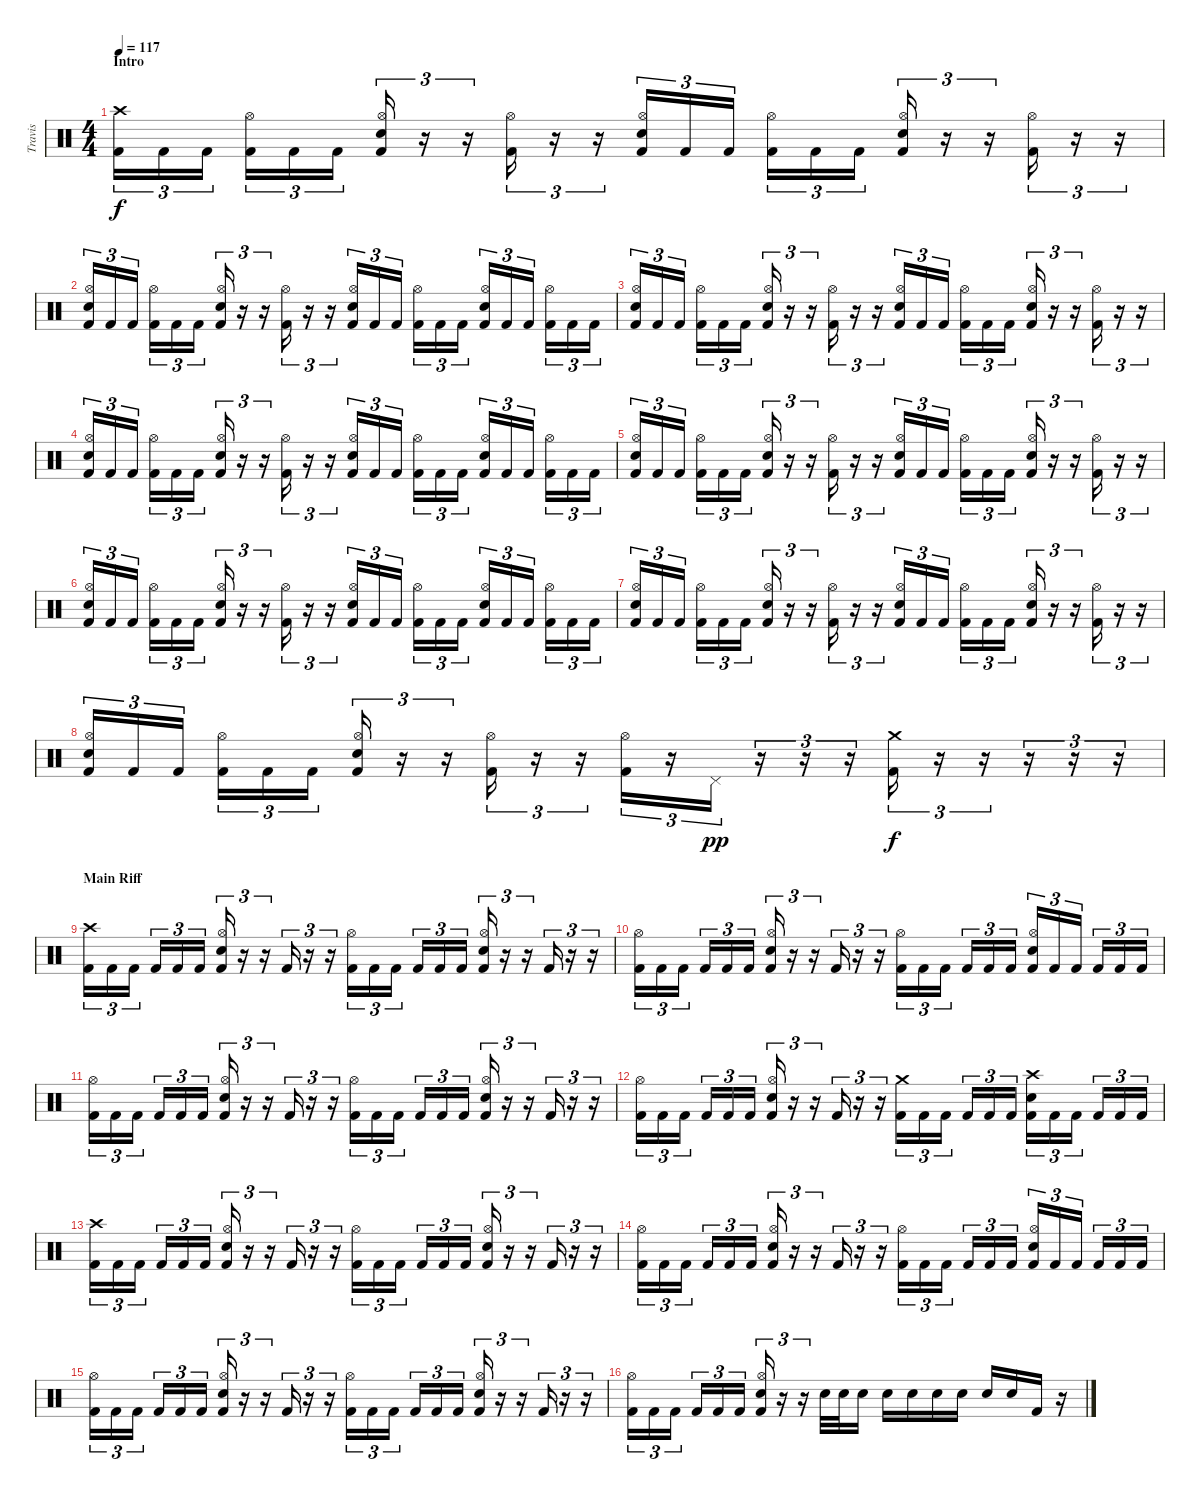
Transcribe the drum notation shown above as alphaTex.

\track ("Travis" "Travis") {instrument percussion}
\staff {score}
\articulation defaults
\ts (4 4)
\section ("" "Intro")
\tempo 117
\clef neutral
\ks c
("Crash high (hit)" "Kick (hit) 2").16{tu (3 2) dy f} "Kick (hit) 2".16{tu (3 2)} "Kick (hit) 2".16{tu (3 2)} ("Hi-Hat (open)" "Kick (hit) 2").16{tu (3 2)} "Kick (hit) 2".16{tu (3 2)} "Kick (hit) 2".16{tu (3 2)} ("Hi-Hat (open)" "Electric Snare (hit)" "Kick (hit) 2").16{tu (3 2)} r.16{tu (3 2)} r.16{tu (3 2)} ("Hi-Hat (open)" "Kick (hit) 2").16{tu (3 2)} r.16{tu (3 2)} r.16{tu (3 2)} ("Hi-Hat (open)" "Electric Snare (hit)" "Kick (hit) 2").16{tu (3 2)} "Kick (hit) 2".16{tu (3 2)} "Kick (hit) 2".16{tu (3 2)} ("Hi-Hat (open)" "Kick (hit) 2").16{tu (3 2)} "Kick (hit) 2".16{tu (3 2)} "Kick (hit) 2".16{tu (3 2)} ("Hi-Hat (open)" "Electric Snare (hit)" "Kick (hit) 2").16{tu (3 2)} r.16{tu (3 2)} r.16{tu (3 2)} ("Hi-Hat (open)" "Kick (hit) 2").16{tu (3 2)} r.16{tu (3 2)} r.16{tu (3 2)} |
("Hi-Hat (open)" "Electric Snare (hit)" "Kick (hit) 2").16{tu (3 2)} "Kick (hit) 2".16{tu (3 2)} "Kick (hit) 2".16{tu (3 2)} ("Hi-Hat (open)" "Kick (hit) 2").16{tu (3 2)} "Kick (hit) 2".16{tu (3 2)} "Kick (hit) 2".16{tu (3 2)} ("Hi-Hat (open)" "Electric Snare (hit)" "Kick (hit) 2").16{tu (3 2)} r.16{tu (3 2)} r.16{tu (3 2)} ("Hi-Hat (open)" "Kick (hit) 2").16{tu (3 2)} r.16{tu (3 2)} r.16{tu (3 2)} ("Hi-Hat (open)" "Electric Snare (hit)" "Kick (hit) 2").16{tu (3 2)} "Kick (hit) 2".16{tu (3 2)} "Kick (hit) 2".16{tu (3 2)} ("Hi-Hat (open)" "Kick (hit) 2").16{tu (3 2)} "Kick (hit) 2".16{tu (3 2)} "Kick (hit) 2".16{tu (3 2)} ("Hi-Hat (open)" "Electric Snare (hit)" "Kick (hit) 2").16{tu (3 2)} "Kick (hit) 2".16{tu (3 2)} "Kick (hit) 2".16{tu (3 2)} ("Hi-Hat (open)" "Kick (hit) 2").16{tu (3 2)} "Kick (hit) 2".16{tu (3 2)} "Kick (hit) 2".16{tu (3 2)} |
("Hi-Hat (open)" "Electric Snare (hit)" "Kick (hit) 2").16{tu (3 2)} "Kick (hit) 2".16{tu (3 2)} "Kick (hit) 2".16{tu (3 2)} ("Hi-Hat (open)" "Kick (hit) 2").16{tu (3 2)} "Kick (hit) 2".16{tu (3 2)} "Kick (hit) 2".16{tu (3 2)} ("Hi-Hat (open)" "Electric Snare (hit)" "Kick (hit) 2").16{tu (3 2)} r.16{tu (3 2)} r.16{tu (3 2)} ("Hi-Hat (open)" "Kick (hit) 2").16{tu (3 2)} r.16{tu (3 2)} r.16{tu (3 2)} ("Hi-Hat (open)" "Electric Snare (hit)" "Kick (hit) 2").16{tu (3 2)} "Kick (hit) 2".16{tu (3 2)} "Kick (hit) 2".16{tu (3 2)} ("Hi-Hat (open)" "Kick (hit) 2").16{tu (3 2)} "Kick (hit) 2".16{tu (3 2)} "Kick (hit) 2".16{tu (3 2)} ("Hi-Hat (open)" "Electric Snare (hit)" "Kick (hit) 2").16{tu (3 2)} r.16{tu (3 2)} r.16{tu (3 2)} ("Hi-Hat (open)" "Kick (hit) 2").16{tu (3 2)} r.16{tu (3 2)} r.16{tu (3 2)} |
("Hi-Hat (open)" "Electric Snare (hit)" "Kick (hit) 2").16{tu (3 2)} "Kick (hit) 2".16{tu (3 2)} "Kick (hit) 2".16{tu (3 2)} ("Hi-Hat (open)" "Kick (hit) 2").16{tu (3 2)} "Kick (hit) 2".16{tu (3 2)} "Kick (hit) 2".16{tu (3 2)} ("Hi-Hat (open)" "Electric Snare (hit)" "Kick (hit) 2").16{tu (3 2)} r.16{tu (3 2)} r.16{tu (3 2)} ("Hi-Hat (open)" "Kick (hit) 2").16{tu (3 2)} r.16{tu (3 2)} r.16{tu (3 2)} ("Hi-Hat (open)" "Electric Snare (hit)" "Kick (hit) 2").16{tu (3 2)} "Kick (hit) 2".16{tu (3 2)} "Kick (hit) 2".16{tu (3 2)} ("Hi-Hat (open)" "Kick (hit) 2").16{tu (3 2)} "Kick (hit) 2".16{tu (3 2)} "Kick (hit) 2".16{tu (3 2)} ("Hi-Hat (open)" "Electric Snare (hit)" "Kick (hit) 2").16{tu (3 2)} "Kick (hit) 2".16{tu (3 2)} "Kick (hit) 2".16{tu (3 2)} ("Hi-Hat (open)" "Kick (hit) 2").16{tu (3 2)} "Kick (hit) 2".16{tu (3 2)} "Kick (hit) 2".16{tu (3 2)} |
("Hi-Hat (open)" "Electric Snare (hit)" "Kick (hit) 2").16{tu (3 2)} "Kick (hit) 2".16{tu (3 2)} "Kick (hit) 2".16{tu (3 2)} ("Hi-Hat (open)" "Kick (hit) 2").16{tu (3 2)} "Kick (hit) 2".16{tu (3 2)} "Kick (hit) 2".16{tu (3 2)} ("Hi-Hat (open)" "Electric Snare (hit)" "Kick (hit) 2").16{tu (3 2)} r.16{tu (3 2)} r.16{tu (3 2)} ("Hi-Hat (open)" "Kick (hit) 2").16{tu (3 2)} r.16{tu (3 2)} r.16{tu (3 2)} ("Hi-Hat (open)" "Electric Snare (hit)" "Kick (hit) 2").16{tu (3 2)} "Kick (hit) 2".16{tu (3 2)} "Kick (hit) 2".16{tu (3 2)} ("Hi-Hat (open)" "Kick (hit) 2").16{tu (3 2)} "Kick (hit) 2".16{tu (3 2)} "Kick (hit) 2".16{tu (3 2)} ("Hi-Hat (open)" "Electric Snare (hit)" "Kick (hit) 2").16{tu (3 2)} r.16{tu (3 2)} r.16{tu (3 2)} ("Hi-Hat (open)" "Kick (hit) 2").16{tu (3 2)} r.16{tu (3 2)} r.16{tu (3 2)} |
("Hi-Hat (open)" "Electric Snare (hit)" "Kick (hit) 2").16{tu (3 2)} "Kick (hit) 2".16{tu (3 2)} "Kick (hit) 2".16{tu (3 2)} ("Hi-Hat (open)" "Kick (hit) 2").16{tu (3 2)} "Kick (hit) 2".16{tu (3 2)} "Kick (hit) 2".16{tu (3 2)} ("Hi-Hat (open)" "Electric Snare (hit)" "Kick (hit) 2").16{tu (3 2)} r.16{tu (3 2)} r.16{tu (3 2)} ("Hi-Hat (open)" "Kick (hit) 2").16{tu (3 2)} r.16{tu (3 2)} r.16{tu (3 2)} ("Hi-Hat (open)" "Electric Snare (hit)" "Kick (hit) 2").16{tu (3 2)} "Kick (hit) 2".16{tu (3 2)} "Kick (hit) 2".16{tu (3 2)} ("Hi-Hat (open)" "Kick (hit) 2").16{tu (3 2)} "Kick (hit) 2".16{tu (3 2)} "Kick (hit) 2".16{tu (3 2)} ("Hi-Hat (open)" "Electric Snare (hit)" "Kick (hit) 2").16{tu (3 2)} "Kick (hit) 2".16{tu (3 2)} "Kick (hit) 2".16{tu (3 2)} ("Hi-Hat (open)" "Kick (hit) 2").16{tu (3 2)} "Kick (hit) 2".16{tu (3 2)} "Kick (hit) 2".16{tu (3 2)} |
("Hi-Hat (open)" "Electric Snare (hit)" "Kick (hit) 2").16{tu (3 2)} "Kick (hit) 2".16{tu (3 2)} "Kick (hit) 2".16{tu (3 2)} ("Hi-Hat (open)" "Kick (hit) 2").16{tu (3 2)} "Kick (hit) 2".16{tu (3 2)} "Kick (hit) 2".16{tu (3 2)} ("Hi-Hat (open)" "Electric Snare (hit)" "Kick (hit) 2").16{tu (3 2)} r.16{tu (3 2)} r.16{tu (3 2)} ("Hi-Hat (open)" "Kick (hit) 2").16{tu (3 2)} r.16{tu (3 2)} r.16{tu (3 2)} ("Hi-Hat (open)" "Electric Snare (hit)" "Kick (hit) 2").16{tu (3 2)} "Kick (hit) 2".16{tu (3 2)} "Kick (hit) 2".16{tu (3 2)} ("Hi-Hat (open)" "Kick (hit) 2").16{tu (3 2)} "Kick (hit) 2".16{tu (3 2)} "Kick (hit) 2".16{tu (3 2)} ("Hi-Hat (open)" "Electric Snare (hit)" "Kick (hit) 2").16{tu (3 2)} r.16{tu (3 2)} r.16{tu (3 2)} ("Hi-Hat (open)" "Kick (hit) 2").16{tu (3 2)} r.16{tu (3 2)} r.16{tu (3 2)} |
("Hi-Hat (open)" "Electric Snare (hit)" "Kick (hit) 2").16{tu (3 2)} "Kick (hit) 2".16{tu (3 2)} "Kick (hit) 2".16{tu (3 2)} ("Hi-Hat (open)" "Kick (hit) 2").16{tu (3 2)} "Kick (hit) 2".16{tu (3 2)} "Kick (hit) 2".16{tu (3 2)} ("Hi-Hat (open)" "Electric Snare (hit)" "Kick (hit) 2").16{tu (3 2)} r.16{tu (3 2)} r.16{tu (3 2)} ("Hi-Hat (open)" "Kick (hit) 2").16{tu (3 2)} r.16{tu (3 2)} r.16{tu (3 2)} ("Hi-Hat (open)" "Kick (hit) 2").16{tu (3 2)} r.16{tu (3 2)} "Pedal Hi-Hat (hit)".16{tu (3 2) dy pp} r.16{tu (3 2)} r.16{tu (3 2)} r.16{tu (3 2)} ("Crash medium (hit)" "Kick (hit) 2").16{tu (3 2) dy f} r.16{tu (3 2)} r.16{tu (3 2)} r.16{tu (3 2)} r.16{tu (3 2)} r.16{tu (3 2)} |
\section ("" "Main Riff")
("Crash high (hit)" "Kick (hit) 2").16{tu (3 2)} "Kick (hit) 2".16{tu (3 2)} "Kick (hit) 2".16{tu (3 2)} "Kick (hit) 2".16{tu (3 2)} "Kick (hit) 2".16{tu (3 2)} "Kick (hit) 2".16{tu (3 2)} ("Hi-Hat (open)" "Electric Snare (hit)" "Kick (hit) 2").16{tu (3 2)} r.16{tu (3 2)} r.16{tu (3 2)} "Kick (hit) 2".16{tu (3 2)} r.16{tu (3 2)} r.16{tu (3 2)} ("Hi-Hat (open)" "Kick (hit) 2").16{tu (3 2)} "Kick (hit) 2".16{tu (3 2)} "Kick (hit) 2".16{tu (3 2)} "Kick (hit) 2".16{tu (3 2)} "Kick (hit) 2".16{tu (3 2)} "Kick (hit) 2".16{tu (3 2)} ("Hi-Hat (open)" "Electric Snare (hit)" "Kick (hit) 2").16{tu (3 2)} r.16{tu (3 2)} r.16{tu (3 2)} "Kick (hit) 2".16{tu (3 2)} r.16{tu (3 2)} r.16{tu (3 2)} |
("Hi-Hat (open)" "Kick (hit) 2").16{tu (3 2)} "Kick (hit) 2".16{tu (3 2)} "Kick (hit) 2".16{tu (3 2)} "Kick (hit) 2".16{tu (3 2)} "Kick (hit) 2".16{tu (3 2)} "Kick (hit) 2".16{tu (3 2)} ("Hi-Hat (open)" "Electric Snare (hit)" "Kick (hit) 2").16{tu (3 2)} r.16{tu (3 2)} r.16{tu (3 2)} "Kick (hit) 2".16{tu (3 2)} r.16{tu (3 2)} r.16{tu (3 2)} ("Hi-Hat (open)" "Kick (hit) 2").16{tu (3 2)} "Kick (hit) 2".16{tu (3 2)} "Kick (hit) 2".16{tu (3 2)} "Kick (hit) 2".16{tu (3 2)} "Kick (hit) 2".16{tu (3 2)} "Kick (hit) 2".16{tu (3 2)} ("Hi-Hat (open)" "Electric Snare (hit)" "Kick (hit) 2").16{tu (3 2)} "Kick (hit) 2".16{tu (3 2)} "Kick (hit) 2".16{tu (3 2)} "Kick (hit) 2".16{tu (3 2)} "Kick (hit) 2".16{tu (3 2)} "Kick (hit) 2".16{tu (3 2)} |
("Hi-Hat (open)" "Kick (hit) 2").16{tu (3 2)} "Kick (hit) 2".16{tu (3 2)} "Kick (hit) 2".16{tu (3 2)} "Kick (hit) 2".16{tu (3 2)} "Kick (hit) 2".16{tu (3 2)} "Kick (hit) 2".16{tu (3 2)} ("Hi-Hat (open)" "Electric Snare (hit)" "Kick (hit) 2").16{tu (3 2)} r.16{tu (3 2)} r.16{tu (3 2)} "Kick (hit) 2".16{tu (3 2)} r.16{tu (3 2)} r.16{tu (3 2)} ("Hi-Hat (open)" "Kick (hit) 2").16{tu (3 2)} "Kick (hit) 2".16{tu (3 2)} "Kick (hit) 2".16{tu (3 2)} "Kick (hit) 2".16{tu (3 2)} "Kick (hit) 2".16{tu (3 2)} "Kick (hit) 2".16{tu (3 2)} ("Hi-Hat (open)" "Electric Snare (hit)" "Kick (hit) 2").16{tu (3 2)} r.16{tu (3 2)} r.16{tu (3 2)} "Kick (hit) 2".16{tu (3 2)} r.16{tu (3 2)} r.16{tu (3 2)} |
("Hi-Hat (open)" "Kick (hit) 2").16{tu (3 2)} "Kick (hit) 2".16{tu (3 2)} "Kick (hit) 2".16{tu (3 2)} "Kick (hit) 2".16{tu (3 2)} "Kick (hit) 2".16{tu (3 2)} "Kick (hit) 2".16{tu (3 2)} ("Hi-Hat (open)" "Electric Snare (hit)" "Kick (hit) 2").16{tu (3 2)} r.16{tu (3 2)} r.16{tu (3 2)} "Kick (hit) 2".16{tu (3 2)} r.16{tu (3 2)} r.16{tu (3 2)} ("Crash medium (hit)" "Kick (hit) 2").16{tu (3 2)} "Kick (hit) 2".16{tu (3 2)} "Kick (hit) 2".16{tu (3 2)} "Kick (hit) 2".16{tu (3 2)} "Kick (hit) 2".16{tu (3 2)} "Kick (hit) 2".16{tu (3 2)} ("Crash high (hit)" "Electric Snare (hit)" "Kick (hit) 2").16{tu (3 2)} "Kick (hit) 2".16{tu (3 2)} "Kick (hit) 2".16{tu (3 2)} "Kick (hit) 2".16{tu (3 2)} "Kick (hit) 2".16{tu (3 2)} "Kick (hit) 2".16{tu (3 2)} |
("Crash high (hit)" "Kick (hit) 2").16{tu (3 2)} "Kick (hit) 2".16{tu (3 2)} "Kick (hit) 2".16{tu (3 2)} "Kick (hit) 2".16{tu (3 2)} "Kick (hit) 2".16{tu (3 2)} "Kick (hit) 2".16{tu (3 2)} ("Hi-Hat (open)" "Electric Snare (hit)" "Kick (hit) 2").16{tu (3 2)} r.16{tu (3 2)} r.16{tu (3 2)} "Kick (hit) 2".16{tu (3 2)} r.16{tu (3 2)} r.16{tu (3 2)} ("Hi-Hat (open)" "Kick (hit) 2").16{tu (3 2)} "Kick (hit) 2".16{tu (3 2)} "Kick (hit) 2".16{tu (3 2)} "Kick (hit) 2".16{tu (3 2)} "Kick (hit) 2".16{tu (3 2)} "Kick (hit) 2".16{tu (3 2)} ("Hi-Hat (open)" "Electric Snare (hit)" "Kick (hit) 2").16{tu (3 2)} r.16{tu (3 2)} r.16{tu (3 2)} "Kick (hit) 2".16{tu (3 2)} r.16{tu (3 2)} r.16{tu (3 2)} |
("Hi-Hat (open)" "Kick (hit) 2").16{tu (3 2)} "Kick (hit) 2".16{tu (3 2)} "Kick (hit) 2".16{tu (3 2)} "Kick (hit) 2".16{tu (3 2)} "Kick (hit) 2".16{tu (3 2)} "Kick (hit) 2".16{tu (3 2)} ("Hi-Hat (open)" "Electric Snare (hit)" "Kick (hit) 2").16{tu (3 2)} r.16{tu (3 2)} r.16{tu (3 2)} "Kick (hit) 2".16{tu (3 2)} r.16{tu (3 2)} r.16{tu (3 2)} ("Hi-Hat (open)" "Kick (hit) 2").16{tu (3 2)} "Kick (hit) 2".16{tu (3 2)} "Kick (hit) 2".16{tu (3 2)} "Kick (hit) 2".16{tu (3 2)} "Kick (hit) 2".16{tu (3 2)} "Kick (hit) 2".16{tu (3 2)} ("Hi-Hat (open)" "Electric Snare (hit)" "Kick (hit) 2").16{tu (3 2)} "Kick (hit) 2".16{tu (3 2)} "Kick (hit) 2".16{tu (3 2)} "Kick (hit) 2".16{tu (3 2)} "Kick (hit) 2".16{tu (3 2)} "Kick (hit) 2".16{tu (3 2)} |
("Hi-Hat (open)" "Kick (hit) 2").16{tu (3 2)} "Kick (hit) 2".16{tu (3 2)} "Kick (hit) 2".16{tu (3 2)} "Kick (hit) 2".16{tu (3 2)} "Kick (hit) 2".16{tu (3 2)} "Kick (hit) 2".16{tu (3 2)} ("Hi-Hat (open)" "Electric Snare (hit)" "Kick (hit) 2").16{tu (3 2)} r.16{tu (3 2)} r.16{tu (3 2)} "Kick (hit) 2".16{tu (3 2)} r.16{tu (3 2)} r.16{tu (3 2)} ("Hi-Hat (open)" "Kick (hit) 2").16{tu (3 2)} "Kick (hit) 2".16{tu (3 2)} "Kick (hit) 2".16{tu (3 2)} "Kick (hit) 2".16{tu (3 2)} "Kick (hit) 2".16{tu (3 2)} "Kick (hit) 2".16{tu (3 2)} ("Hi-Hat (open)" "Electric Snare (hit)" "Kick (hit) 2").16{tu (3 2)} r.16{tu (3 2)} r.16{tu (3 2)} "Kick (hit) 2".16{tu (3 2)} r.16{tu (3 2)} r.16{tu (3 2)} |
("Hi-Hat (open)" "Kick (hit) 2").16{tu (3 2)} "Kick (hit) 2".16{tu (3 2)} "Kick (hit) 2".16{tu (3 2)} "Kick (hit) 2".16{tu (3 2)} "Kick (hit) 2".16{tu (3 2)} "Kick (hit) 2".16{tu (3 2)} ("Hi-Hat (open)" "Electric Snare (hit)" "Kick (hit) 2").16{tu (3 2)} r.16{tu (3 2)} r.16{tu (3 2)} "Electric Snare (hit)".32 "Electric Snare (hit)".32 "Electric Snare (hit)".16 "Electric Snare (hit)".16 "Electric Snare (hit)".16 "Electric Snare (hit)".16 "Electric Snare (hit)".16 "Electric Snare (hit)".16 "Electric Snare (hit)".16 "Kick (hit) 2".16 r.16
